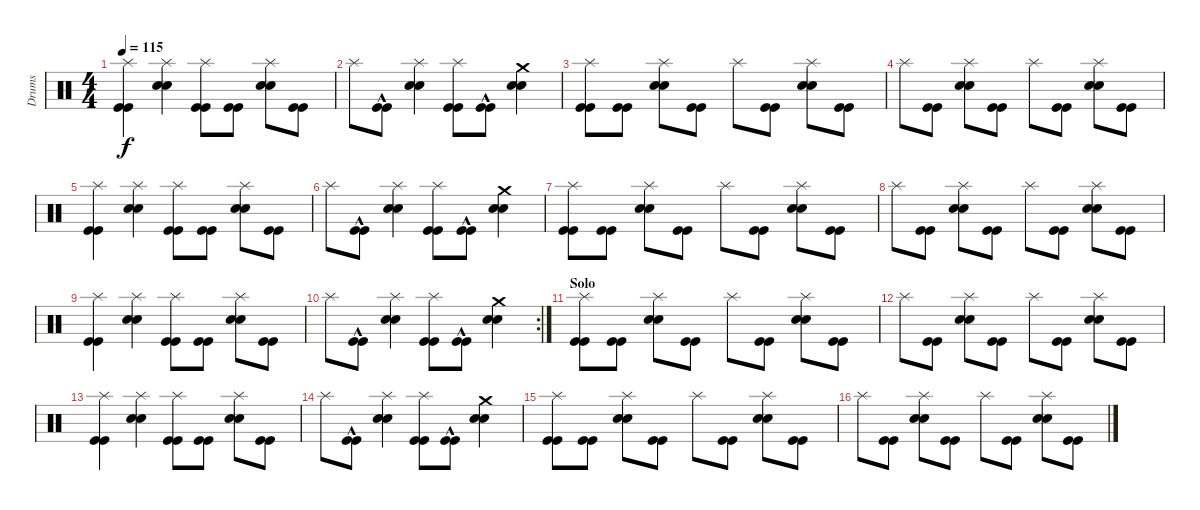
\track ("Drums" "Drums") {instrument percussion}
\staff {score}
\articulation defaults
\ts (4 4)
\tempo 115
\clef neutral
\ks c
("Kick (hit)" "Kick (hit)" "Splash (hit)").4{dy f} ("Snare (hit) 2" "Snare (hit) 2" "Splash (hit)").4 ("Kick (hit)" "Kick (hit)" "Splash (hit)").8 ("Kick (hit)" "Kick (hit)").8 ("Snare (hit) 2" "Snare (hit) 2" "Splash (hit)").8 ("Kick (hit)" "Kick (hit)").8 |
"Splash (hit)".8 ("Kick (hit)"{hac} "Kick (hit)"{hac}).8 ("Snare (hit) 2" "Snare (hit) 2" "Splash (hit)").4 ("Kick (hit)" "Kick (hit)" "Splash (hit)").8 ("Kick (hit)"{hac} "Kick (hit)"{hac}).8 ("Snare (hit) 2" "Snare (hit) 2" "Crash medium (hit)").4 |
("Kick (hit)" "Kick (hit)" "Splash (hit)").8 ("Kick (hit)" "Kick (hit)").8 ("Snare (hit) 2" "Snare (hit) 2" "Splash (hit)").8 ("Kick (hit)" "Kick (hit)").8 "Splash (hit)".8 ("Kick (hit)" "Kick (hit)").8 ("Snare (hit) 2" "Snare (hit) 2" "Splash (hit)").8 ("Kick (hit)" "Kick (hit)").8 |
"Splash (hit)".8 ("Kick (hit)" "Kick (hit)").8 ("Snare (hit) 2" "Snare (hit) 2" "Splash (hit)").8 ("Kick (hit)" "Kick (hit)").8 "Splash (hit)".8 ("Kick (hit)" "Kick (hit)").8 ("Snare (hit) 2" "Snare (hit) 2" "Splash (hit)").8 ("Kick (hit)" "Kick (hit)").8 |
("Kick (hit)" "Kick (hit)" "Splash (hit)").4 ("Snare (hit) 2" "Snare (hit) 2" "Splash (hit)").4 ("Kick (hit)" "Kick (hit)" "Splash (hit)").8 ("Kick (hit)" "Kick (hit)").8 ("Snare (hit) 2" "Snare (hit) 2" "Splash (hit)").8 ("Kick (hit)" "Kick (hit)").8 |
"Splash (hit)".8 ("Kick (hit)"{hac} "Kick (hit)"{hac}).8 ("Snare (hit) 2" "Snare (hit) 2" "Splash (hit)").4 ("Kick (hit)" "Kick (hit)" "Splash (hit)").8 ("Kick (hit)"{hac} "Kick (hit)"{hac}).8 ("Snare (hit) 2" "Snare (hit) 2" "Crash medium (hit)").4 |
("Kick (hit)" "Kick (hit)" "Splash (hit)").8 ("Kick (hit)" "Kick (hit)").8 ("Snare (hit) 2" "Snare (hit) 2" "Splash (hit)").8 ("Kick (hit)" "Kick (hit)").8 "Splash (hit)".8 ("Kick (hit)" "Kick (hit)").8 ("Snare (hit) 2" "Snare (hit) 2" "Splash (hit)").8 ("Kick (hit)" "Kick (hit)").8 |
"Splash (hit)".8 ("Kick (hit)" "Kick (hit)").8 ("Snare (hit) 2" "Snare (hit) 2" "Splash (hit)").8 ("Kick (hit)" "Kick (hit)").8 "Splash (hit)".8 ("Kick (hit)" "Kick (hit)").8 ("Snare (hit) 2" "Snare (hit) 2" "Splash (hit)").8 ("Kick (hit)" "Kick (hit)").8 |
("Kick (hit)" "Kick (hit)" "Splash (hit)").4 ("Snare (hit) 2" "Snare (hit) 2" "Splash (hit)").4 ("Kick (hit)" "Kick (hit)" "Splash (hit)").8 ("Kick (hit)" "Kick (hit)").8 ("Snare (hit) 2" "Snare (hit) 2" "Splash (hit)").8 ("Kick (hit)" "Kick (hit)").8 |
\rc 2 "Splash (hit)".8
("Kick (hit)"{hac} "Kick (hit)"{hac}).8 ("Snare (hit) 2" "Snare (hit) 2" "Splash (hit)").4 ("Kick (hit)" "Kick (hit)" "Splash (hit)").8 ("Kick (hit)"{hac} "Kick (hit)"{hac}).8 ("Snare (hit) 2" "Snare (hit) 2" "Crash medium (hit)").4 |
\section ("" "Solo")
("Kick (hit)" "Kick (hit)" "Splash (hit)").8 ("Kick (hit)" "Kick (hit)").8 ("Snare (hit) 2" "Snare (hit) 2" "Splash (hit)").8 ("Kick (hit)" "Kick (hit)").8 "Splash (hit)".8 ("Kick (hit)" "Kick (hit)").8 ("Snare (hit) 2" "Snare (hit) 2" "Splash (hit)").8 ("Kick (hit)" "Kick (hit)").8 |
"Splash (hit)".8 ("Kick (hit)" "Kick (hit)").8 ("Snare (hit) 2" "Snare (hit) 2" "Splash (hit)").8 ("Kick (hit)" "Kick (hit)").8 "Splash (hit)".8 ("Kick (hit)" "Kick (hit)").8 ("Snare (hit) 2" "Snare (hit) 2" "Splash (hit)").8 ("Kick (hit)" "Kick (hit)").8 |
("Kick (hit)" "Kick (hit)" "Splash (hit)").4 ("Snare (hit) 2" "Snare (hit) 2" "Splash (hit)").4 ("Kick (hit)" "Kick (hit)" "Splash (hit)").8 ("Kick (hit)" "Kick (hit)").8 ("Snare (hit) 2" "Snare (hit) 2" "Splash (hit)").8 ("Kick (hit)" "Kick (hit)").8 |
"Splash (hit)".8 ("Kick (hit)"{hac} "Kick (hit)"{hac}).8 ("Snare (hit) 2" "Snare (hit) 2" "Splash (hit)").4 ("Kick (hit)" "Kick (hit)" "Splash (hit)").8 ("Kick (hit)"{hac} "Kick (hit)"{hac}).8 ("Snare (hit) 2" "Snare (hit) 2" "Crash medium (hit)").4 |
("Kick (hit)" "Kick (hit)" "Splash (hit)").8 ("Kick (hit)" "Kick (hit)").8 ("Snare (hit) 2" "Snare (hit) 2" "Splash (hit)").8 ("Kick (hit)" "Kick (hit)").8 "Splash (hit)".8 ("Kick (hit)" "Kick (hit)").8 ("Snare (hit) 2" "Snare (hit) 2" "Splash (hit)").8 ("Kick (hit)" "Kick (hit)").8 |
"Splash (hit)".8 ("Kick (hit)" "Kick (hit)").8 ("Snare (hit) 2" "Snare (hit) 2" "Splash (hit)").8 ("Kick (hit)" "Kick (hit)").8 "Splash (hit)".8 ("Kick (hit)" "Kick (hit)").8 ("Snare (hit) 2" "Snare (hit) 2" "Splash (hit)").8 ("Kick (hit)" "Kick (hit)").8
